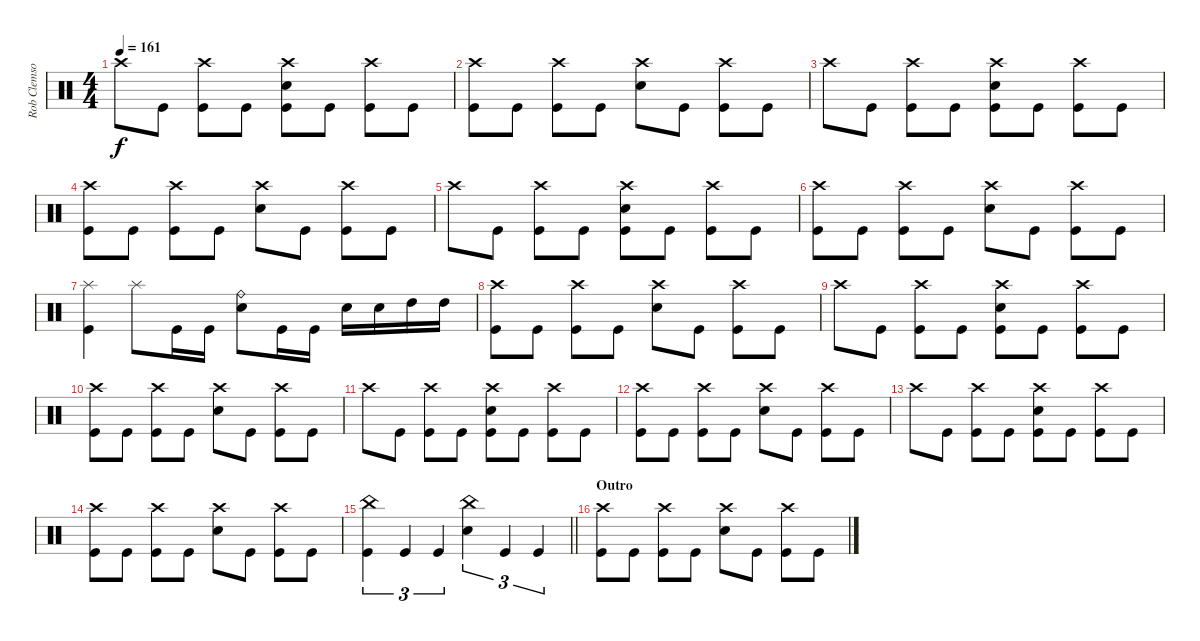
\track ("Rob Clemson (Drums)" "Rob Clemso") {instrument percussion}
\staff {score}
\articulation defaults
\ts (4 4)
\tempo 161
\clef neutral
\ks c "Crash high (hit)".8{dy f} "Kick (hit)".8
("Kick (hit)" "Crash high (hit)").8 "Kick (hit)".8 ("Crash high (hit)" "Kick (hit)" "Electric Snare (hit)").8 "Kick (hit)".8 ("Kick (hit)" "Crash high (hit)").8 "Kick (hit)".8 |
("Kick (hit)" "Crash high (hit)").8 "Kick (hit)".8 ("Kick (hit)" "Crash high (hit)").8 "Kick (hit)".8 ("Electric Snare (hit)" "Crash high (hit)").8 "Kick (hit)".8 ("Kick (hit)" "Crash high (hit)").8 "Kick (hit)".8 |
"Crash high (hit)".8 "Kick (hit)".8 ("Kick (hit)" "Crash high (hit)").8 "Kick (hit)".8 ("Crash high (hit)" "Kick (hit)" "Electric Snare (hit)").8 "Kick (hit)".8 ("Kick (hit)" "Crash high (hit)").8 "Kick (hit)".8 |
("Kick (hit)" "Crash high (hit)").8 "Kick (hit)".8 ("Kick (hit)" "Crash high (hit)").8 "Kick (hit)".8 ("Electric Snare (hit)" "Crash high (hit)").8 "Kick (hit)".8 ("Kick (hit)" "Crash high (hit)").8 "Kick (hit)".8 |
"Crash high (hit)".8 "Kick (hit)".8 ("Kick (hit)" "Crash high (hit)").8 "Kick (hit)".8 ("Crash high (hit)" "Kick (hit)" "Electric Snare (hit)").8 "Kick (hit)".8 ("Kick (hit)" "Crash high (hit)").8 "Kick (hit)".8 |
("Kick (hit)" "Crash high (hit)").8 "Kick (hit)".8 ("Kick (hit)" "Crash high (hit)").8 "Kick (hit)".8 ("Electric Snare (hit)" "Crash high (hit)").8 "Kick (hit)".8 ("Kick (hit)" "Crash high (hit)").8 "Kick (hit)".8 |
("Splash (hit)" "Kick (hit)").4 "Splash (hit)".8 "Kick (hit)".16 "Kick (hit)".16 ("Electric Snare (hit)" "Ride (bell)").8 "Kick (hit)".16 "Kick (hit)".16 "Electric Snare (hit)".16 "Electric Snare (hit)".16 "High Tom (hit)".16 "High Tom (hit)".16 |
("Kick (hit)" "Crash high (hit)").8 "Kick (hit)".8 ("Kick (hit)" "Crash high (hit)").8 "Kick (hit)".8 ("Electric Snare (hit)" "Crash high (hit)").8 "Kick (hit)".8 ("Kick (hit)" "Crash high (hit)").8 "Kick (hit)".8 |
"Crash high (hit)".8 "Kick (hit)".8 ("Kick (hit)" "Crash high (hit)").8 "Kick (hit)".8 ("Crash high (hit)" "Kick (hit)" "Electric Snare (hit)").8 "Kick (hit)".8 ("Kick (hit)" "Crash high (hit)").8 "Kick (hit)".8 |
("Kick (hit)" "Crash high (hit)").8 "Kick (hit)".8 ("Kick (hit)" "Crash high (hit)").8 "Kick (hit)".8 ("Electric Snare (hit)" "Crash high (hit)").8 "Kick (hit)".8 ("Kick (hit)" "Crash high (hit)").8 "Kick (hit)".8 |
"Crash high (hit)".8 "Kick (hit)".8 ("Kick (hit)" "Crash high (hit)").8 "Kick (hit)".8 ("Crash high (hit)" "Kick (hit)" "Electric Snare (hit)").8 "Kick (hit)".8 ("Kick (hit)" "Crash high (hit)").8 "Kick (hit)".8 |
("Kick (hit)" "Crash high (hit)").8 "Kick (hit)".8 ("Kick (hit)" "Crash high (hit)").8 "Kick (hit)".8 ("Electric Snare (hit)" "Crash high (hit)").8 "Kick (hit)".8 ("Kick (hit)" "Crash high (hit)").8 "Kick (hit)".8 |
"Crash high (hit)".8 "Kick (hit)".8 ("Kick (hit)" "Crash high (hit)").8 "Kick (hit)".8 ("Crash high (hit)" "Kick (hit)" "Electric Snare (hit)").8 "Kick (hit)".8 ("Kick (hit)" "Crash high (hit)").8 "Kick (hit)".8 |
("Kick (hit)" "Crash high (hit)").8 "Kick (hit)".8 ("Kick (hit)" "Crash high (hit)").8 "Kick (hit)".8 ("Electric Snare (hit)" "Crash high (hit)").8 "Kick (hit)".8 ("Kick (hit)" "Crash high (hit)").8 "Kick (hit)".8 |
\barLineRight lightlight
("Kick (hit)" "China (hit)").4{tu (3 2)} "Kick (hit)".4{tu (3 2)} "Kick (hit)".4{tu (3 2)} ("Electric Snare (hit)" "China (hit)").4{tu (3 2)} "Kick (hit)".4{tu (3 2)} "Kick (hit)".4{tu (3 2)} |
\section ("" "Outro")
("Kick (hit)" "Crash high (hit)").8 "Kick (hit)".8 ("Kick (hit)" "Crash high (hit)").8 "Kick (hit)".8 ("Electric Snare (hit)" "Crash high (hit)").8 "Kick (hit)".8 ("Kick (hit)" "Crash high (hit)").8 "Kick (hit)".8
